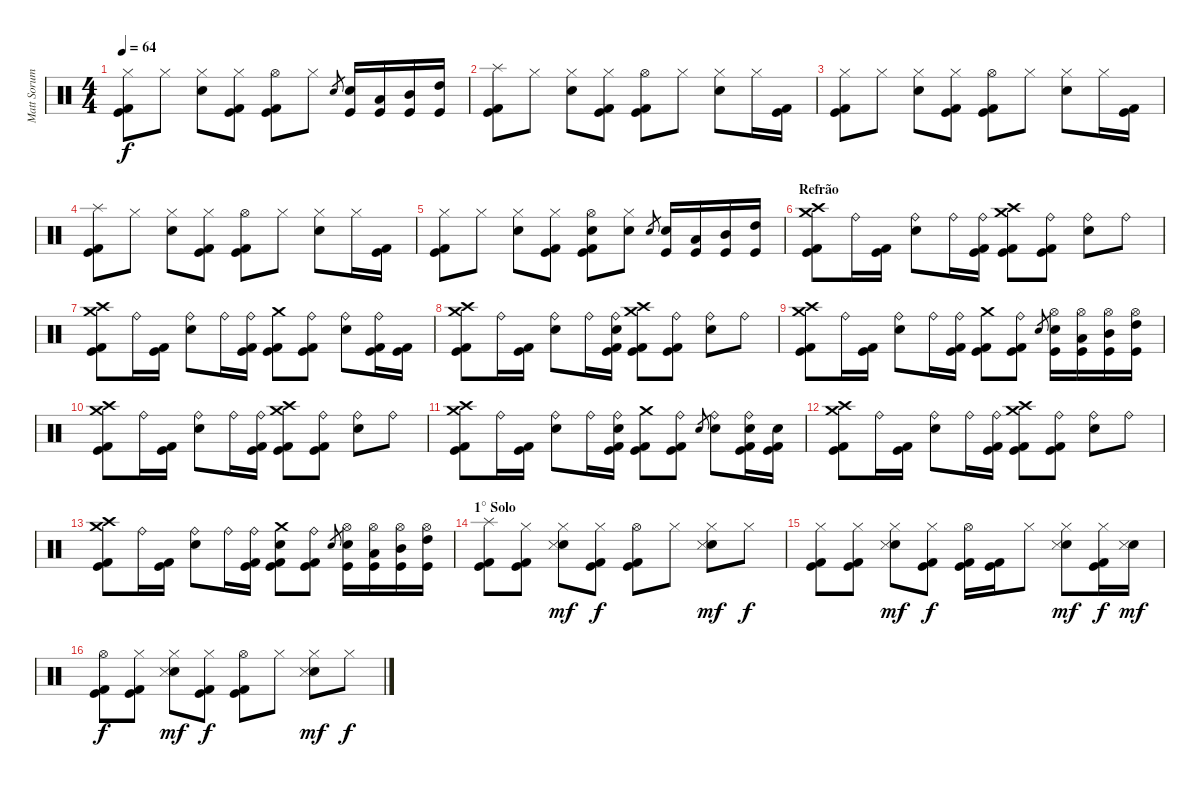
\track ("Matt Sorum" "Matt Sorum") {instrument percussion}
\staff {score}
\articulation defaults
\ts (4 4)
\tempo 64
\clef neutral
\ks c
("Hi-Hat (closed)" "Kick (hit) 2" "Kick (hit)").8{dy f} "Hi-Hat (closed)".8 ("Hi-Hat (closed)" "Electric Snare (hit)").8 ("Hi-Hat (closed)" "Kick (hit) 2" "Kick (hit)").8 ("Hi-Hat (open)" "Kick (hit) 2" "Kick (hit)").8 "Hi-Hat (closed)".8 "Electric Snare (hit)".8{gr} ("Electric Snare (hit)" "Kick (hit)").16 ("Low Tom (hit)" "Kick (hit)").16 ("Mid Tom (hit)" "Kick (hit)").16 ("High Tom (hit)" "Kick (hit)").16 |
("Splash (hit)" "Kick (hit) 2" "Kick (hit)").8 "Hi-Hat (closed)".8 ("Hi-Hat (closed)" "Electric Snare (hit)").8 ("Hi-Hat (closed)" "Kick (hit) 2" "Kick (hit)").8 ("Hi-Hat (open)" "Kick (hit) 2" "Kick (hit)").8 "Hi-Hat (closed)".8 ("Hi-Hat (closed)" "Electric Snare (hit)").8 "Hi-Hat (closed)".16 ("Kick (hit) 2" "Kick (hit)").16 |
("Hi-Hat (closed)" "Kick (hit) 2" "Kick (hit)").8 "Hi-Hat (closed)".8 ("Hi-Hat (closed)" "Electric Snare (hit)").8 ("Hi-Hat (closed)" "Kick (hit) 2" "Kick (hit)").8 ("Hi-Hat (open)" "Kick (hit) 2" "Kick (hit)").8 "Hi-Hat (closed)".8 ("Hi-Hat (closed)" "Electric Snare (hit)").8 "Hi-Hat (closed)".16 ("Kick (hit) 2" "Kick (hit)").16 |
("Splash (hit)" "Kick (hit) 2" "Kick (hit)").8 "Hi-Hat (closed)".8 ("Hi-Hat (closed)" "Electric Snare (hit)").8 ("Hi-Hat (closed)" "Kick (hit) 2" "Kick (hit)").8 ("Hi-Hat (open)" "Kick (hit) 2" "Kick (hit)").8 "Hi-Hat (closed)".8 ("Hi-Hat (closed)" "Electric Snare (hit)").8 "Hi-Hat (closed)".16 ("Kick (hit) 2" "Kick (hit)").16 |
("Hi-Hat (closed)" "Kick (hit) 2" "Kick (hit)").8 "Hi-Hat (closed)".8 ("Hi-Hat (closed)" "Electric Snare (hit)").8 ("Hi-Hat (closed)" "Kick (hit) 2" "Kick (hit)").8 ("Hi-Hat (open)" "Electric Snare (hit)" "Kick (hit) 2" "Kick (hit)").8 ("Hi-Hat (closed)" "Electric Snare (hit)").8 "Electric Snare (hit)".8{gr} ("Electric Snare (hit)" "Kick (hit)").16 ("Low Tom (hit)" "Kick (hit)").16 ("Mid Tom (hit)" "Kick (hit)").16 ("High Tom (hit)" "Kick (hit)").16 |
\section ("" "Refrão")
("Crash medium (hit)" "Crash high (hit)" "Kick (hit) 2" "Kick (hit)").8 "Ride (bell)".16 ("Kick (hit) 2" "Kick (hit)").16 ("Ride (bell)" "Electric Snare (hit)").8 "Ride (bell)".16 ("Ride (bell)" "Kick (hit) 2" "Kick (hit)").16 ("Crash medium (hit)" "Crash high (hit)" "Kick (hit) 2" "Kick (hit)").8 ("Ride (bell)" "Kick (hit) 2" "Kick (hit)").8 ("Ride (bell)" "Electric Snare (hit)").8 "Ride (bell)".8 |
("Crash medium (hit)" "Crash high (hit)" "Kick (hit) 2" "Kick (hit)").8 "Ride (bell)".16 ("Kick (hit) 2" "Kick (hit)").16 ("Ride (bell)" "Electric Snare (hit)").8 "Ride (bell)".16 ("Ride (bell)" "Kick (hit) 2" "Kick (hit)").16 ("Crash medium (hit)" "Kick (hit) 2" "Kick (hit)").8 ("Ride (bell)" "Kick (hit) 2" "Kick (hit)").8 ("Ride (bell)" "Electric Snare (hit)").8 ("Ride (bell)" "Kick (hit) 2" "Kick (hit)").16 ("Kick (hit) 2" "Kick (hit)").16 |
("Crash medium (hit)" "Crash high (hit)" "Kick (hit) 2" "Kick (hit)").8 "Ride (bell)".16 ("Kick (hit) 2" "Kick (hit)").16 ("Ride (bell)" "Electric Snare (hit)").8 "Ride (bell)".16 ("Ride (bell)" "Electric Snare (hit)" "Kick (hit) 2" "Kick (hit)").16 ("Crash medium (hit)" "Crash high (hit)" "Kick (hit) 2" "Kick (hit)").8 ("Ride (bell)" "Kick (hit) 2" "Kick (hit)").8 ("Ride (bell)" "Electric Snare (hit)").8 "Ride (bell)".8 |
("Crash medium (hit)" "Crash high (hit)" "Kick (hit) 2" "Kick (hit)").8 "Ride (bell)".16 ("Kick (hit) 2" "Kick (hit)").16 ("Ride (bell)" "Electric Snare (hit)").8 "Ride (bell)".16 ("Ride (bell)" "Kick (hit) 2" "Kick (hit)").16 ("Crash medium (hit)" "Kick (hit) 2" "Kick (hit)").8 ("Ride (bell)" "Kick (hit) 2" "Kick (hit)").8 "Electric Snare (hit)".8{gr} ("Hi-Hat (open)" "Electric Snare (hit)" "Kick (hit)").16 ("Hi-Hat (open)" "Low Tom (hit)" "Kick (hit)").16 ("Hi-Hat (open)" "Mid Tom (hit)" "Kick (hit)").16 ("Hi-Hat (open)" "High Tom (hit)" "Kick (hit)").16 |
("Crash medium (hit)" "Crash high (hit)" "Kick (hit) 2" "Kick (hit)").8 "Ride (bell)".16 ("Kick (hit) 2" "Kick (hit)").16 ("Ride (bell)" "Electric Snare (hit)").8 "Ride (bell)".16 ("Ride (bell)" "Kick (hit) 2" "Kick (hit)").16 ("Crash medium (hit)" "Crash high (hit)" "Kick (hit) 2" "Kick (hit)").8 ("Ride (bell)" "Kick (hit) 2" "Kick (hit)").8 ("Ride (bell)" "Electric Snare (hit)").8 "Ride (bell)".8 |
("Crash medium (hit)" "Crash high (hit)" "Kick (hit) 2" "Kick (hit)").8 "Ride (bell)".16 ("Kick (hit) 2" "Kick (hit)").16 ("Ride (bell)" "Electric Snare (hit)").8 "Ride (bell)".16 ("Ride (bell)" "Electric Snare (hit)" "Kick (hit) 2" "Kick (hit)").16 ("Crash medium (hit)" "Kick (hit) 2" "Kick (hit)").8 ("Ride (bell)" "Kick (hit) 2" "Kick (hit)").8 "Electric Snare (hit)".8{gr} ("Ride (bell)" "Electric Snare (hit)").8 ("Ride (bell)" "Electric Snare (hit)" "Kick (hit) 2" "Kick (hit)").16 ("Electric Snare (hit)" "Kick (hit) 2" "Kick (hit)").16 |
("Crash medium (hit)" "Crash high (hit)" "Kick (hit) 2" "Kick (hit)").8 "Ride (bell)".16 ("Kick (hit) 2" "Kick (hit)").16 ("Ride (bell)" "Electric Snare (hit)").8 "Ride (bell)".16 ("Ride (bell)" "Kick (hit) 2" "Kick (hit)").16 ("Crash medium (hit)" "Crash high (hit)" "Kick (hit) 2" "Kick (hit)").8 ("Ride (bell)" "Kick (hit) 2" "Kick (hit)").8 ("Ride (bell)" "Electric Snare (hit)").8 "Ride (bell)".8 |
("Crash medium (hit)" "Crash high (hit)" "Kick (hit) 2" "Kick (hit)").8 "Ride (bell)".16 ("Kick (hit) 2" "Kick (hit)").16 ("Ride (bell)" "Electric Snare (hit)").8 "Ride (bell)".16 ("Ride (bell)" "Kick (hit) 2" "Kick (hit)").16 ("Crash medium (hit)" "Electric Snare (hit)" "Kick (hit) 2" "Kick (hit)").8 ("Ride (bell)" "Kick (hit) 2" "Kick (hit)").8 "Electric Snare (hit)".8{gr} ("Hi-Hat (open)" "Electric Snare (hit)" "Kick (hit)").16 ("Hi-Hat (open)" "Low Tom (hit)" "Kick (hit)").16 ("Hi-Hat (open)" "Mid Tom (hit)" "Kick (hit)").16 ("Hi-Hat (open)" "High Tom (hit)" "Kick (hit)").16 |
\section ("" "1° Solo")
("Splash (hit)" "Kick (hit) 2" "Kick (hit)").8 ("Hi-Hat (closed)" "Kick (hit) 2" "Kick (hit)").8 ("Hi-Hat (closed)" "Electric Snare (hit)" "Snare (side stick) 3").8{dy mf} ("Hi-Hat (closed)" "Kick (hit) 2" "Kick (hit)").8{dy f} ("Hi-Hat (open)" "Kick (hit) 2" "Kick (hit)").8 "Hi-Hat (closed)".8 ("Hi-Hat (closed)" "Electric Snare (hit)" "Snare (side stick) 3").8{dy mf} "Hi-Hat (closed)".8{dy f} |
("Hi-Hat (closed)" "Kick (hit) 2" "Kick (hit)").8 ("Hi-Hat (closed)" "Kick (hit) 2" "Kick (hit)").8 ("Hi-Hat (closed)" "Electric Snare (hit)" "Snare (side stick) 3").8{dy mf} ("Hi-Hat (closed)" "Kick (hit) 2" "Kick (hit)").8{dy f} ("Hi-Hat (open)" "Kick (hit) 2" "Kick (hit)").16 ("Kick (hit)" "Kick (hit) 2").16 "Hi-Hat (closed)".8 ("Hi-Hat (closed)" "Electric Snare (hit)" "Snare (side stick) 3").8{dy mf} ("Hi-Hat (closed)" "Kick (hit) 2" "Kick (hit)").16{dy f} ("Electric Snare (hit)" "Snare (side stick) 3").16{dy mf} |
("Hi-Hat (open)" "Kick (hit) 2" "Kick (hit)").8{dy f} ("Hi-Hat (closed)" "Kick (hit) 2" "Kick (hit)").8 ("Hi-Hat (closed)" "Electric Snare (hit)" "Snare (side stick) 3").8{dy mf} ("Hi-Hat (closed)" "Kick (hit) 2" "Kick (hit)").8{dy f} ("Hi-Hat (open)" "Kick (hit) 2" "Kick (hit)").8 "Hi-Hat (closed)".8 ("Hi-Hat (closed)" "Electric Snare (hit)" "Snare (side stick) 3").8{dy mf} "Hi-Hat (closed)".8{dy f}
